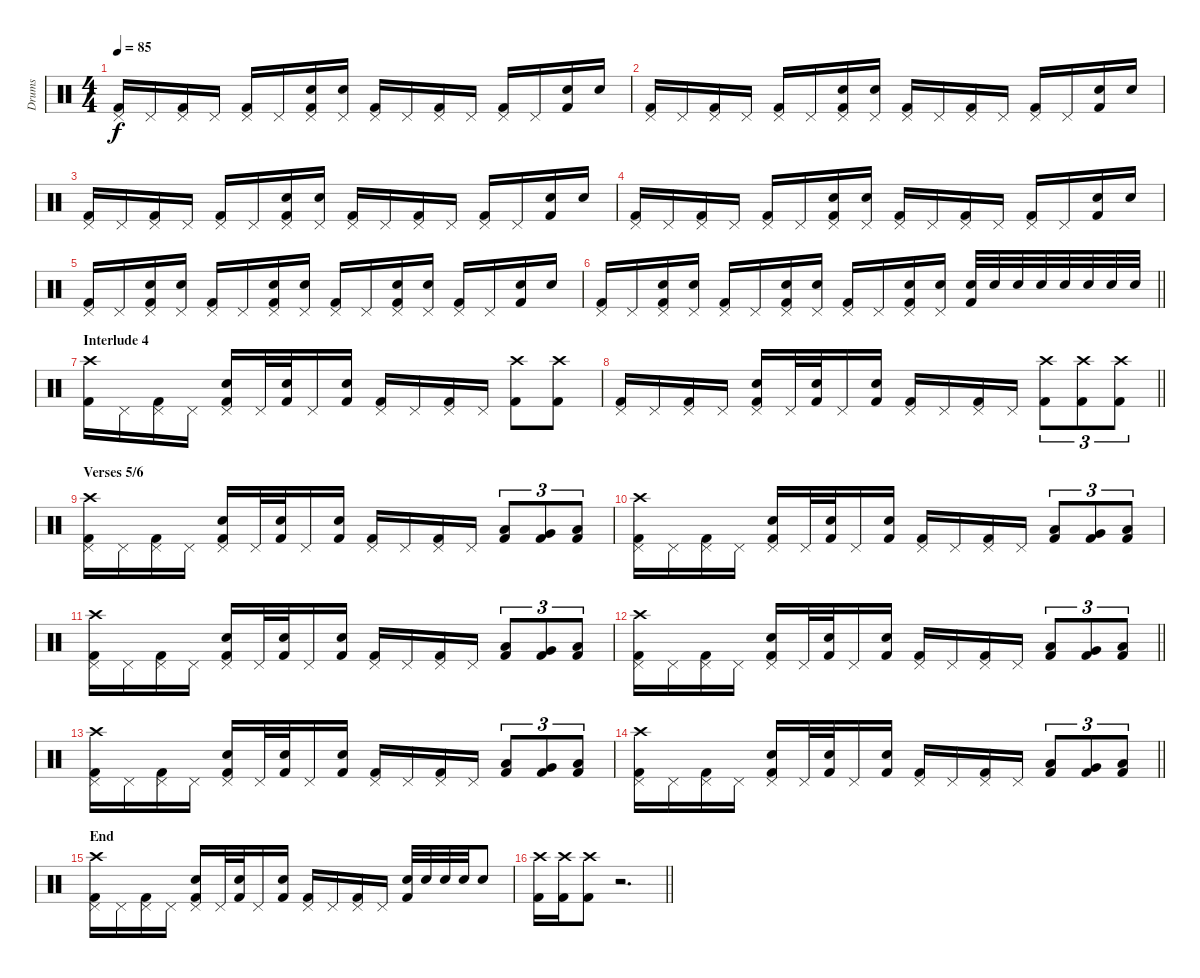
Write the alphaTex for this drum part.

\track ("Drums" "Drums") {instrument percussion}
\staff {score}
\articulation defaults
\ts (4 4)
\tempo 85
\clef neutral
\ks c
("Kick (hit) 2" "Pedal Hi-Hat (hit)").16{dy f} "Pedal Hi-Hat (hit)".16 ("Kick (hit) 2" "Pedal Hi-Hat (hit)").16 "Pedal Hi-Hat (hit)".16 ("Kick (hit) 2" "Pedal Hi-Hat (hit)").16 "Pedal Hi-Hat (hit)".16 ("Kick (hit) 2" "Snare (hit) 2" "Pedal Hi-Hat (hit)").16 ("Snare (hit) 2" "Pedal Hi-Hat (hit)").16 ("Kick (hit) 2" "Pedal Hi-Hat (hit)").16 "Pedal Hi-Hat (hit)".16 ("Kick (hit) 2" "Pedal Hi-Hat (hit)").16 "Pedal Hi-Hat (hit)".16 ("Kick (hit) 2" "Pedal Hi-Hat (hit)").16 "Pedal Hi-Hat (hit)".16 ("Kick (hit) 2" "Snare (hit) 2").16 "Snare (hit) 2".16 |
("Kick (hit) 2" "Pedal Hi-Hat (hit)").16 "Pedal Hi-Hat (hit)".16 ("Kick (hit) 2" "Pedal Hi-Hat (hit)").16 "Pedal Hi-Hat (hit)".16 ("Kick (hit) 2" "Pedal Hi-Hat (hit)").16 "Pedal Hi-Hat (hit)".16 ("Kick (hit) 2" "Snare (hit) 2" "Pedal Hi-Hat (hit)").16 ("Snare (hit) 2" "Pedal Hi-Hat (hit)").16 ("Kick (hit) 2" "Pedal Hi-Hat (hit)").16 "Pedal Hi-Hat (hit)".16 ("Kick (hit) 2" "Pedal Hi-Hat (hit)").16 "Pedal Hi-Hat (hit)".16 ("Kick (hit) 2" "Pedal Hi-Hat (hit)").16 "Pedal Hi-Hat (hit)".16 ("Kick (hit) 2" "Snare (hit) 2").16 "Snare (hit) 2".16 |
("Kick (hit) 2" "Pedal Hi-Hat (hit)").16 "Pedal Hi-Hat (hit)".16 ("Kick (hit) 2" "Pedal Hi-Hat (hit)").16 "Pedal Hi-Hat (hit)".16 ("Kick (hit) 2" "Pedal Hi-Hat (hit)").16 "Pedal Hi-Hat (hit)".16 ("Kick (hit) 2" "Snare (hit) 2" "Pedal Hi-Hat (hit)").16 ("Snare (hit) 2" "Pedal Hi-Hat (hit)").16 ("Kick (hit) 2" "Pedal Hi-Hat (hit)").16 "Pedal Hi-Hat (hit)".16 ("Kick (hit) 2" "Pedal Hi-Hat (hit)").16 "Pedal Hi-Hat (hit)".16 ("Kick (hit) 2" "Pedal Hi-Hat (hit)").16 "Pedal Hi-Hat (hit)".16 ("Kick (hit) 2" "Snare (hit) 2").16 "Snare (hit) 2".16 |
("Kick (hit) 2" "Pedal Hi-Hat (hit)").16 "Pedal Hi-Hat (hit)".16 ("Kick (hit) 2" "Pedal Hi-Hat (hit)").16 "Pedal Hi-Hat (hit)".16 ("Kick (hit) 2" "Pedal Hi-Hat (hit)").16 "Pedal Hi-Hat (hit)".16 ("Kick (hit) 2" "Snare (hit) 2" "Pedal Hi-Hat (hit)").16 ("Snare (hit) 2" "Pedal Hi-Hat (hit)").16 ("Kick (hit) 2" "Pedal Hi-Hat (hit)").16 "Pedal Hi-Hat (hit)".16 ("Kick (hit) 2" "Pedal Hi-Hat (hit)").16 "Pedal Hi-Hat (hit)".16 ("Kick (hit) 2" "Pedal Hi-Hat (hit)").16 "Pedal Hi-Hat (hit)".16 ("Kick (hit) 2" "Snare (hit) 2").16 "Snare (hit) 2".16 |
("Kick (hit) 2" "Pedal Hi-Hat (hit)").16 "Pedal Hi-Hat (hit)".16 ("Kick (hit) 2" "Snare (hit) 2" "Pedal Hi-Hat (hit)").16 ("Snare (hit) 2" "Pedal Hi-Hat (hit)").16 ("Kick (hit) 2" "Pedal Hi-Hat (hit)").16 "Pedal Hi-Hat (hit)".16 ("Kick (hit) 2" "Snare (hit) 2" "Pedal Hi-Hat (hit)").16 ("Snare (hit) 2" "Pedal Hi-Hat (hit)").16 ("Kick (hit) 2" "Pedal Hi-Hat (hit)").16 "Pedal Hi-Hat (hit)".16 ("Kick (hit) 2" "Snare (hit) 2" "Pedal Hi-Hat (hit)").16 ("Snare (hit) 2" "Pedal Hi-Hat (hit)").16 ("Kick (hit) 2" "Pedal Hi-Hat (hit)").16 "Pedal Hi-Hat (hit)".16 ("Kick (hit) 2" "Snare (hit) 2").16 "Snare (hit) 2".16 |
\barLineRight lightlight
("Kick (hit) 2" "Pedal Hi-Hat (hit)").16 "Pedal Hi-Hat (hit)".16 ("Kick (hit) 2" "Snare (hit) 2" "Pedal Hi-Hat (hit)").16 ("Snare (hit) 2" "Pedal Hi-Hat (hit)").16 ("Kick (hit) 2" "Pedal Hi-Hat (hit)").16 "Pedal Hi-Hat (hit)".16 ("Kick (hit) 2" "Snare (hit) 2" "Pedal Hi-Hat (hit)").16 ("Snare (hit) 2" "Pedal Hi-Hat (hit)").16 ("Kick (hit) 2" "Pedal Hi-Hat (hit)").16 "Pedal Hi-Hat (hit)".16 ("Kick (hit) 2" "Snare (hit) 2" "Pedal Hi-Hat (hit)").16 ("Snare (hit) 2" "Pedal Hi-Hat (hit)").16 ("Kick (hit) 2" "Snare (hit) 2").32 "Snare (hit) 2".32 "Snare (hit) 2".32 "Snare (hit) 2".32 "Snare (hit) 2".32 "Snare (hit) 2".32 "Snare (hit) 2".32 "Snare (hit) 2".32 |
\section ("" "Interlude 4")
("Kick (hit) 2" "Crash high (hit)").16 "Pedal Hi-Hat (hit)".16 ("Kick (hit) 2" "Pedal Hi-Hat (hit)").16 "Pedal Hi-Hat (hit)".16 ("Kick (hit) 2" "Snare (hit) 2" "Pedal Hi-Hat (hit)").16 "Pedal Hi-Hat (hit)".32 ("Kick (hit) 2" "Snare (hit) 2").32 "Pedal Hi-Hat (hit)".16 ("Kick (hit) 2" "Snare (hit) 2").16 ("Kick (hit) 2" "Pedal Hi-Hat (hit)").16 "Pedal Hi-Hat (hit)".16 ("Kick (hit) 2" "Pedal Hi-Hat (hit)").16 "Pedal Hi-Hat (hit)".16 ("Kick (hit) 2" "Crash high (hit)").8 ("Kick (hit) 2" "Crash high (hit)").8 |
\barLineRight lightlight
("Kick (hit) 2" "Pedal Hi-Hat (hit)").16 "Pedal Hi-Hat (hit)".16 ("Kick (hit) 2" "Pedal Hi-Hat (hit)").16 "Pedal Hi-Hat (hit)".16 ("Kick (hit) 2" "Snare (hit) 2" "Pedal Hi-Hat (hit)").16 "Pedal Hi-Hat (hit)".32 ("Kick (hit) 2" "Snare (hit) 2").32 "Pedal Hi-Hat (hit)".16 ("Kick (hit) 2" "Snare (hit) 2").16 ("Kick (hit) 2" "Pedal Hi-Hat (hit)").16 "Pedal Hi-Hat (hit)".16 ("Kick (hit) 2" "Pedal Hi-Hat (hit)").16 "Pedal Hi-Hat (hit)".16 ("Kick (hit) 2" "Crash high (hit)").8{tu (3 2)} ("Kick (hit) 2" "Crash high (hit)").8{tu (3 2)} ("Kick (hit) 2" "Crash high (hit)").8{tu (3 2)} |
\section ("" "Verses 5/6")
("Kick (hit) 2" "Pedal Hi-Hat (hit)" "Crash high (hit)").16 "Pedal Hi-Hat (hit)".16 ("Kick (hit) 2" "Pedal Hi-Hat (hit)").16 "Pedal Hi-Hat (hit)".16 ("Kick (hit) 2" "Snare (hit) 2" "Pedal Hi-Hat (hit)").16 "Pedal Hi-Hat (hit)".32 ("Kick (hit) 2" "Snare (hit) 2").32 "Pedal Hi-Hat (hit)".16 ("Kick (hit) 2" "Snare (hit) 2").16 ("Kick (hit) 2" "Pedal Hi-Hat (hit)").16 "Pedal Hi-Hat (hit)".16 ("Kick (hit) 2" "Pedal Hi-Hat (hit)").16 "Pedal Hi-Hat (hit)".16 ("Kick (hit) 2" "Low Floor Tom (hit)").8{tu (3 2)} ("Kick (hit) 2" "Very Low Tom (hit)").8{tu (3 2)} ("Kick (hit) 2" "Low Floor Tom (hit)").8{tu (3 2)} |
("Kick (hit) 2" "Pedal Hi-Hat (hit)" "Crash high (hit)").16 "Pedal Hi-Hat (hit)".16 ("Kick (hit) 2" "Pedal Hi-Hat (hit)").16 "Pedal Hi-Hat (hit)".16 ("Kick (hit) 2" "Snare (hit) 2" "Pedal Hi-Hat (hit)").16 "Pedal Hi-Hat (hit)".32 ("Kick (hit) 2" "Snare (hit) 2").32 "Pedal Hi-Hat (hit)".16 ("Kick (hit) 2" "Snare (hit) 2").16 ("Kick (hit) 2" "Pedal Hi-Hat (hit)").16 "Pedal Hi-Hat (hit)".16 ("Kick (hit) 2" "Pedal Hi-Hat (hit)").16 "Pedal Hi-Hat (hit)".16 ("Kick (hit) 2" "Low Floor Tom (hit)").8{tu (3 2)} ("Kick (hit) 2" "Very Low Tom (hit)").8{tu (3 2)} ("Kick (hit) 2" "Low Floor Tom (hit)").8{tu (3 2)} |
("Kick (hit) 2" "Pedal Hi-Hat (hit)" "Crash high (hit)").16 "Pedal Hi-Hat (hit)".16 ("Kick (hit) 2" "Pedal Hi-Hat (hit)").16 "Pedal Hi-Hat (hit)".16 ("Kick (hit) 2" "Snare (hit) 2" "Pedal Hi-Hat (hit)").16 "Pedal Hi-Hat (hit)".32 ("Kick (hit) 2" "Snare (hit) 2").32 "Pedal Hi-Hat (hit)".16 ("Kick (hit) 2" "Snare (hit) 2").16 ("Kick (hit) 2" "Pedal Hi-Hat (hit)").16 "Pedal Hi-Hat (hit)".16 ("Kick (hit) 2" "Pedal Hi-Hat (hit)").16 "Pedal Hi-Hat (hit)".16 ("Kick (hit) 2" "Low Floor Tom (hit)").8{tu (3 2)} ("Kick (hit) 2" "Very Low Tom (hit)").8{tu (3 2)} ("Kick (hit) 2" "Low Floor Tom (hit)").8{tu (3 2)} |
\barLineRight lightlight
("Kick (hit) 2" "Pedal Hi-Hat (hit)" "Crash high (hit)").16 "Pedal Hi-Hat (hit)".16 ("Kick (hit) 2" "Pedal Hi-Hat (hit)").16 "Pedal Hi-Hat (hit)".16 ("Kick (hit) 2" "Snare (hit) 2" "Pedal Hi-Hat (hit)").16 "Pedal Hi-Hat (hit)".32 ("Kick (hit) 2" "Snare (hit) 2").32 "Pedal Hi-Hat (hit)".16 ("Kick (hit) 2" "Snare (hit) 2").16 ("Kick (hit) 2" "Pedal Hi-Hat (hit)").16 "Pedal Hi-Hat (hit)".16 ("Kick (hit) 2" "Pedal Hi-Hat (hit)").16 "Pedal Hi-Hat (hit)".16 ("Kick (hit) 2" "Low Floor Tom (hit)").8{tu (3 2)} ("Kick (hit) 2" "Very Low Tom (hit)").8{tu (3 2)} ("Kick (hit) 2" "Low Floor Tom (hit)").8{tu (3 2)} |
("Kick (hit) 2" "Pedal Hi-Hat (hit)" "Crash high (hit)").16 "Pedal Hi-Hat (hit)".16 ("Kick (hit) 2" "Pedal Hi-Hat (hit)").16 "Pedal Hi-Hat (hit)".16 ("Kick (hit) 2" "Snare (hit) 2" "Pedal Hi-Hat (hit)").16 "Pedal Hi-Hat (hit)".32 ("Kick (hit) 2" "Snare (hit) 2").32 "Pedal Hi-Hat (hit)".16 ("Kick (hit) 2" "Snare (hit) 2").16 ("Kick (hit) 2" "Pedal Hi-Hat (hit)").16 "Pedal Hi-Hat (hit)".16 ("Kick (hit) 2" "Pedal Hi-Hat (hit)").16 "Pedal Hi-Hat (hit)".16 ("Kick (hit) 2" "Low Floor Tom (hit)").8{tu (3 2)} ("Kick (hit) 2" "Very Low Tom (hit)").8{tu (3 2)} ("Kick (hit) 2" "Low Floor Tom (hit)").8{tu (3 2)} |
\barLineRight lightlight
("Kick (hit) 2" "Pedal Hi-Hat (hit)" "Crash high (hit)").16 "Pedal Hi-Hat (hit)".16 ("Kick (hit) 2" "Pedal Hi-Hat (hit)").16 "Pedal Hi-Hat (hit)".16 ("Kick (hit) 2" "Snare (hit) 2" "Pedal Hi-Hat (hit)").16 "Pedal Hi-Hat (hit)".32 ("Kick (hit) 2" "Snare (hit) 2").32 "Pedal Hi-Hat (hit)".16 ("Kick (hit) 2" "Snare (hit) 2").16 ("Kick (hit) 2" "Pedal Hi-Hat (hit)").16 "Pedal Hi-Hat (hit)".16 ("Kick (hit) 2" "Pedal Hi-Hat (hit)").16 "Pedal Hi-Hat (hit)".16 ("Kick (hit) 2" "Low Floor Tom (hit)").8{tu (3 2)} ("Kick (hit) 2" "Very Low Tom (hit)").8{tu (3 2)} ("Kick (hit) 2" "Low Floor Tom (hit)").8{tu (3 2)} |
\section ("" "End")
("Kick (hit) 2" "Pedal Hi-Hat (hit)" "Crash high (hit)").16 "Pedal Hi-Hat (hit)".16 ("Kick (hit) 2" "Pedal Hi-Hat (hit)").16 "Pedal Hi-Hat (hit)".16 ("Kick (hit) 2" "Snare (hit) 2" "Pedal Hi-Hat (hit)").16 "Pedal Hi-Hat (hit)".32 ("Kick (hit) 2" "Snare (hit) 2").32 "Pedal Hi-Hat (hit)".16 ("Kick (hit) 2" "Snare (hit) 2").16 ("Kick (hit) 2" "Pedal Hi-Hat (hit)").16 "Pedal Hi-Hat (hit)".16 ("Kick (hit) 2" "Pedal Hi-Hat (hit)").16 "Pedal Hi-Hat (hit)".16 ("Kick (hit) 2" "Snare (hit) 2").32 "Snare (hit) 2".32 "Snare (hit) 2".32 "Snare (hit) 2".32 "Snare (hit) 2".8 |
\barLineRight lightlight
("Kick (hit) 2" "Crash high (hit)").16 ("Kick (hit) 2" "Crash high (hit)").16 ("Kick (hit) 2" "Crash high (hit)").8 r.2{d}
